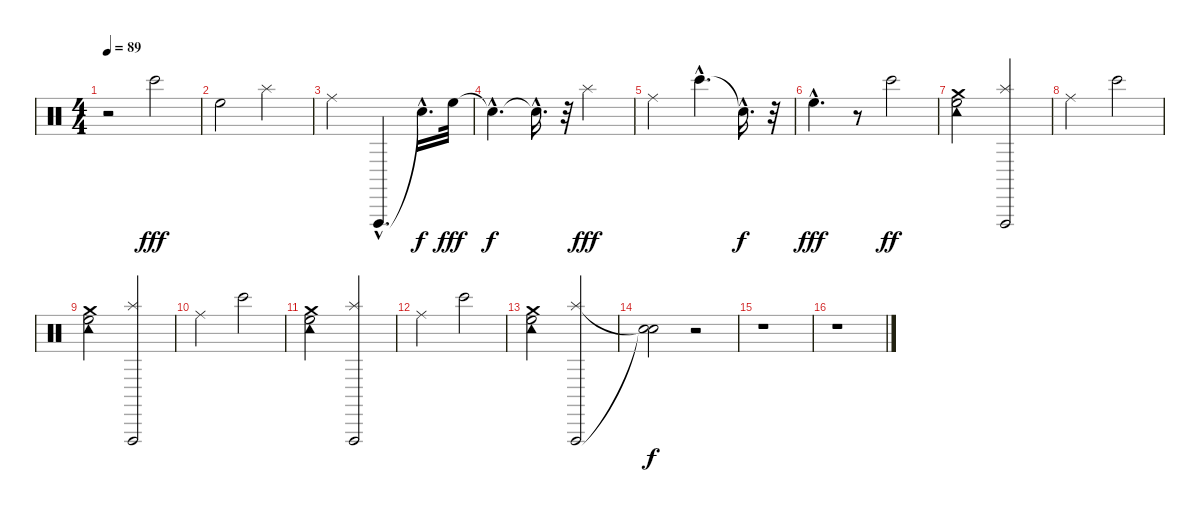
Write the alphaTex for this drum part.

\track "" {instrument percussion}
\staff {score}
\articulation defaults
\ts (4 4)
\tempo 89
\clef neutral
\ks c
r.2{dy f} "Bongo High (hit)".2{dy fff} |
"High Floor Tom (hit)".2 "Splash (hit)".2 |
"Ride (middle)".2 "Vibraslap (hit)"{hac}.4{d} "Snare (hit)"{hac t}.16{d dy f} "High Floor Tom (hit)".32{dy fff} |
"Snare (hit)"{hac t}.4{d dy f} "Snare (hit)"{hac t}.16{d} r.32 "Splash (hit)".2{dy fff} |
"Ride (middle)".2 "Bongo High (hit)"{hac}.4{d} "Snare (hit)"{hac t}.16{d dy f} r.32 |
"High Floor Tom (hit)"{hac}.4{d dy fff} r.8 "Bongo High (hit)".2{dy ff} |
("Crash medium (hit)" "Tambourine (hit)" "High Floor Tom (hit)").2 ("Splash (hit)" "Vibraslap (hit)").2 |
"Ride (middle)".2 "Bongo High (hit)".2 |
("High Floor Tom (hit)" "Tambourine (hit)" "Crash medium (hit)").2 ("Splash (hit)" "Vibraslap (hit)").2 |
"Ride (middle)".2 "Bongo High (hit)".2 |
("Crash medium (hit)" "Tambourine (hit)" "High Floor Tom (hit)").2 ("Splash (hit)" "Vibraslap (hit)").2 |
"Ride (middle)".2 "Bongo High (hit)".2 |
("High Floor Tom (hit)" "Tambourine (hit)" "Crash medium (hit)").2 ("Splash (hit)" "Vibraslap (hit)").2 |
("Snare (hit)"{t} "Snare (hit)"{t}).2{dy f} r.2 |
r.1 |
r.1
